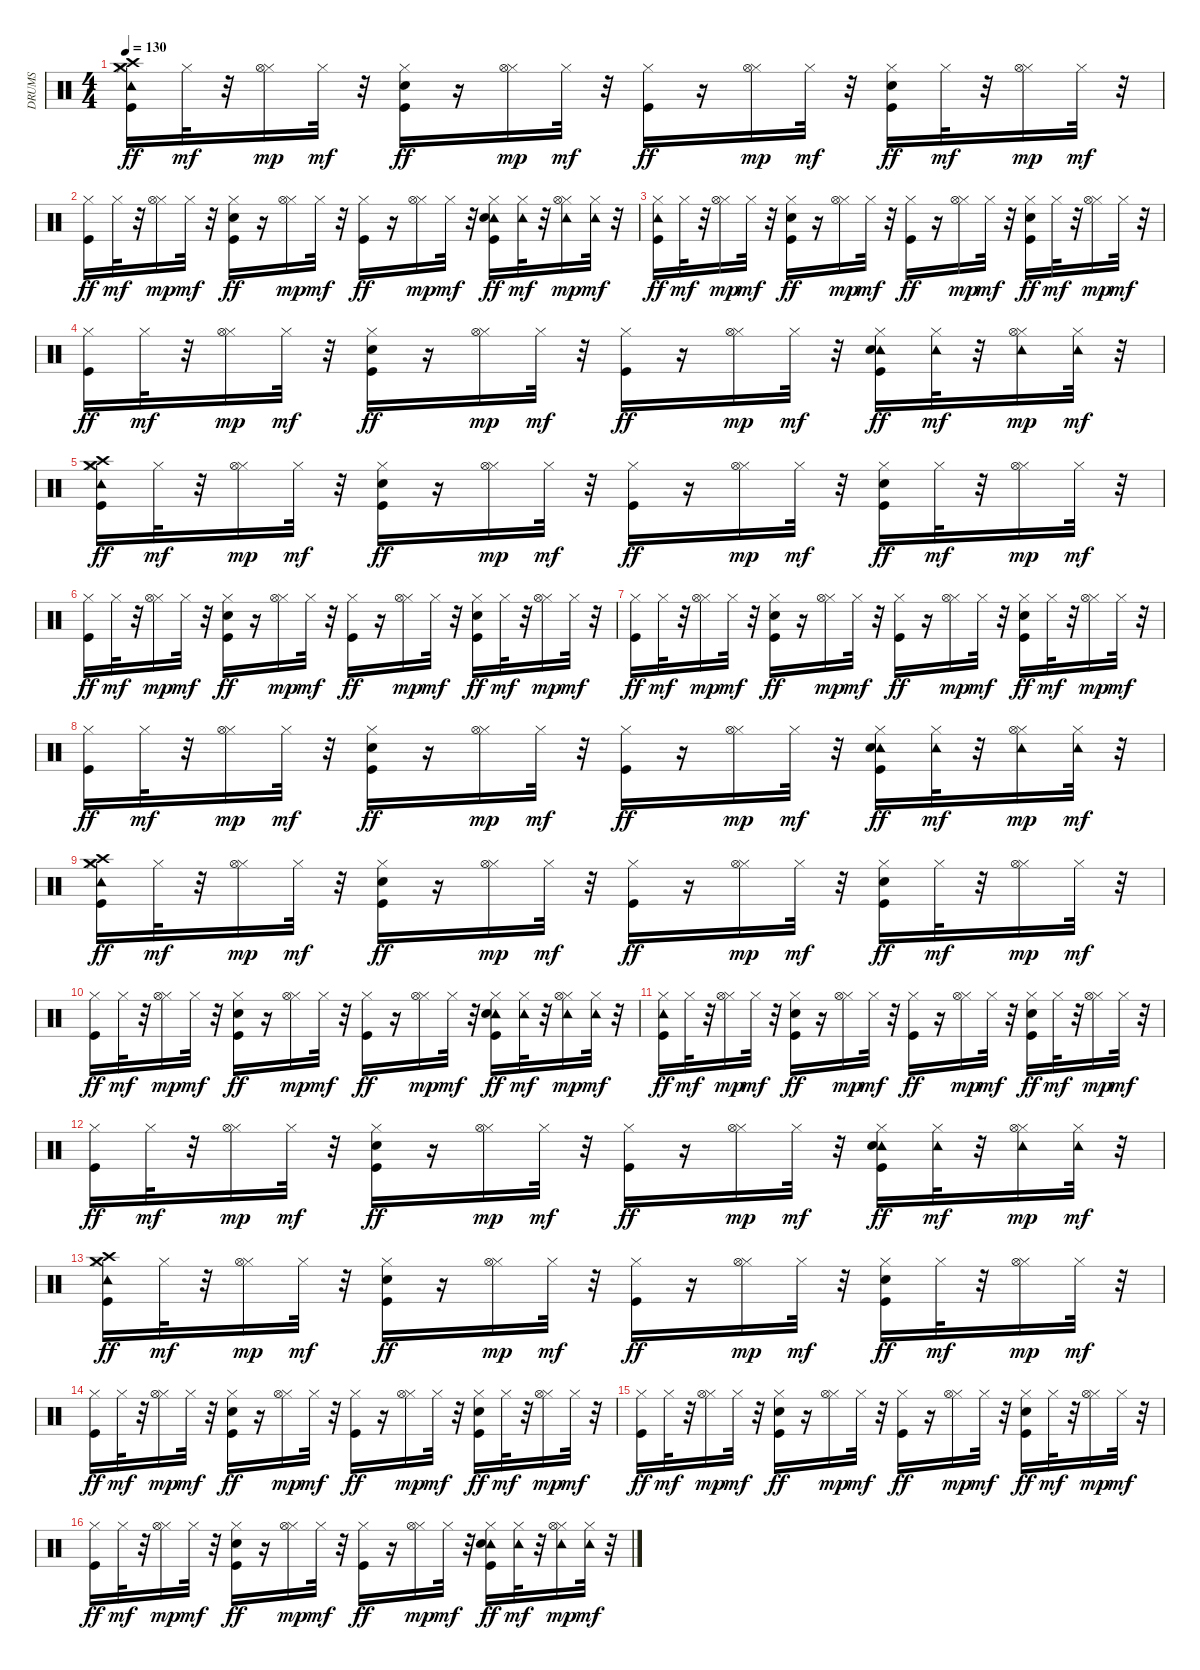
\track ("DRUMS" "DRUMS") {instrument percussion}
\staff {score}
\articulation defaults
\ts (4 4)
\tempo 130
\clef neutral
\ks c
("Hi-Hat (closed)" "Tambourine (hit)" "Crash high (hit)" "Crash medium (hit)" "Kick (hit)").16{dy ff} "Hi-Hat (closed)".32{dy mf} r.32 ("Hi-Hat (closed)" "Hi-Hat (open)").16{dy mp} "Hi-Hat (closed)".32{dy mf} r.32 ("Hi-Hat (closed)" "Electric Snare (hit)" "Kick (hit)").16{dy ff} r.16 ("Hi-Hat (closed)" "Hi-Hat (open)").16{dy mp} "Hi-Hat (closed)".32{dy mf} r.32 ("Hi-Hat (closed)" "Kick (hit)").16{dy ff} r.16 ("Hi-Hat (closed)" "Hi-Hat (open)").16{dy mp} "Hi-Hat (closed)".32{dy mf} r.32 ("Hi-Hat (closed)" "Electric Snare (hit)" "Kick (hit)").16{dy ff} "Hi-Hat (closed)".32{dy mf} r.32 ("Hi-Hat (closed)" "Hi-Hat (open)").16{dy mp} "Hi-Hat (closed)".32{dy mf} r.32 |
("Hi-Hat (closed)" "Kick (hit)").16{dy ff} "Hi-Hat (closed)".32{dy mf} r.32 ("Hi-Hat (closed)" "Hi-Hat (open)").16{dy mp} "Hi-Hat (closed)".32{dy mf} r.32 ("Hi-Hat (closed)" "Electric Snare (hit)" "Kick (hit)").16{dy ff} r.16 ("Hi-Hat (closed)" "Hi-Hat (open)").16{dy mp} "Hi-Hat (closed)".32{dy mf} r.32 ("Hi-Hat (closed)" "Kick (hit)").16{dy ff} r.16 ("Hi-Hat (closed)" "Hi-Hat (open)").16{dy mp} "Hi-Hat (closed)".32{dy mf} r.32 ("Hi-Hat (closed)" "Tambourine (hit)" "Electric Snare (hit)" "Kick (hit)").16{dy ff} ("Hi-Hat (closed)" "Tambourine (hit)").32{dy mf} r.32 ("Hi-Hat (closed)" "Tambourine (hit)" "Hi-Hat (open)").16{dy mp} ("Hi-Hat (closed)" "Tambourine (hit)").32{dy mf} r.32 |
("Hi-Hat (closed)" "Tambourine (hit)" "Kick (hit)").16{dy ff} "Hi-Hat (closed)".32{dy mf} r.32 ("Hi-Hat (closed)" "Hi-Hat (open)").16{dy mp} "Hi-Hat (closed)".32{dy mf} r.32 ("Hi-Hat (closed)" "Electric Snare (hit)" "Kick (hit)").16{dy ff} r.16 ("Hi-Hat (closed)" "Hi-Hat (open)").16{dy mp} "Hi-Hat (closed)".32{dy mf} r.32 ("Hi-Hat (closed)" "Kick (hit)").16{dy ff} r.16 ("Hi-Hat (closed)" "Hi-Hat (open)").16{dy mp} "Hi-Hat (closed)".32{dy mf} r.32 ("Hi-Hat (closed)" "Electric Snare (hit)" "Kick (hit)").16{dy ff} "Hi-Hat (closed)".32{dy mf} r.32 ("Hi-Hat (closed)" "Hi-Hat (open)").16{dy mp} "Hi-Hat (closed)".32{dy mf} r.32 |
("Hi-Hat (closed)" "Kick (hit)").16{dy ff} "Hi-Hat (closed)".32{dy mf} r.32 ("Hi-Hat (closed)" "Hi-Hat (open)").16{dy mp} "Hi-Hat (closed)".32{dy mf} r.32 ("Hi-Hat (closed)" "Electric Snare (hit)" "Kick (hit)").16{dy ff} r.16 ("Hi-Hat (closed)" "Hi-Hat (open)").16{dy mp} "Hi-Hat (closed)".32{dy mf} r.32 ("Hi-Hat (closed)" "Kick (hit)").16{dy ff} r.16 ("Hi-Hat (closed)" "Hi-Hat (open)").16{dy mp} "Hi-Hat (closed)".32{dy mf} r.32 ("Hi-Hat (closed)" "Tambourine (hit)" "Electric Snare (hit)" "Kick (hit)").16{dy ff} ("Hi-Hat (closed)" "Tambourine (hit)").32{dy mf} r.32 ("Hi-Hat (closed)" "Tambourine (hit)" "Hi-Hat (open)").16{dy mp} ("Hi-Hat (closed)" "Tambourine (hit)").32{dy mf} r.32 |
("Hi-Hat (closed)" "Tambourine (hit)" "Crash high (hit)" "Crash medium (hit)" "Kick (hit)").16{dy ff} "Hi-Hat (closed)".32{dy mf} r.32 ("Hi-Hat (closed)" "Hi-Hat (open)").16{dy mp} "Hi-Hat (closed)".32{dy mf} r.32 ("Hi-Hat (closed)" "Electric Snare (hit)" "Kick (hit)").16{dy ff} r.16 ("Hi-Hat (closed)" "Hi-Hat (open)").16{dy mp} "Hi-Hat (closed)".32{dy mf} r.32 ("Hi-Hat (closed)" "Kick (hit)").16{dy ff} r.16 ("Hi-Hat (closed)" "Hi-Hat (open)").16{dy mp} "Hi-Hat (closed)".32{dy mf} r.32 ("Hi-Hat (closed)" "Electric Snare (hit)" "Kick (hit)").16{dy ff} "Hi-Hat (closed)".32{dy mf} r.32 ("Hi-Hat (closed)" "Hi-Hat (open)").16{dy mp} "Hi-Hat (closed)".32{dy mf} r.32 |
("Hi-Hat (closed)" "Kick (hit)").16{dy ff} "Hi-Hat (closed)".32{dy mf} r.32 ("Hi-Hat (closed)" "Hi-Hat (open)").16{dy mp} "Hi-Hat (closed)".32{dy mf} r.32 ("Hi-Hat (closed)" "Electric Snare (hit)" "Kick (hit)").16{dy ff} r.16 ("Hi-Hat (closed)" "Hi-Hat (open)").16{dy mp} "Hi-Hat (closed)".32{dy mf} r.32 ("Hi-Hat (closed)" "Kick (hit)").16{dy ff} r.16 ("Hi-Hat (closed)" "Hi-Hat (open)").16{dy mp} "Hi-Hat (closed)".32{dy mf} r.32 ("Hi-Hat (closed)" "Electric Snare (hit)" "Kick (hit)").16{dy ff} "Hi-Hat (closed)".32{dy mf} r.32 ("Hi-Hat (closed)" "Hi-Hat (open)").16{dy mp} "Hi-Hat (closed)".32{dy mf} r.32 |
("Hi-Hat (closed)" "Kick (hit)").16{dy ff} "Hi-Hat (closed)".32{dy mf} r.32 ("Hi-Hat (closed)" "Hi-Hat (open)").16{dy mp} "Hi-Hat (closed)".32{dy mf} r.32 ("Hi-Hat (closed)" "Electric Snare (hit)" "Kick (hit)").16{dy ff} r.16 ("Hi-Hat (closed)" "Hi-Hat (open)").16{dy mp} "Hi-Hat (closed)".32{dy mf} r.32 ("Hi-Hat (closed)" "Kick (hit)").16{dy ff} r.16 ("Hi-Hat (closed)" "Hi-Hat (open)").16{dy mp} "Hi-Hat (closed)".32{dy mf} r.32 ("Hi-Hat (closed)" "Electric Snare (hit)" "Kick (hit)").16{dy ff} "Hi-Hat (closed)".32{dy mf} r.32 ("Hi-Hat (closed)" "Hi-Hat (open)").16{dy mp} "Hi-Hat (closed)".32{dy mf} r.32 |
("Hi-Hat (closed)" "Kick (hit)").16{dy ff} "Hi-Hat (closed)".32{dy mf} r.32 ("Hi-Hat (closed)" "Hi-Hat (open)").16{dy mp} "Hi-Hat (closed)".32{dy mf} r.32 ("Hi-Hat (closed)" "Electric Snare (hit)" "Kick (hit)").16{dy ff} r.16 ("Hi-Hat (closed)" "Hi-Hat (open)").16{dy mp} "Hi-Hat (closed)".32{dy mf} r.32 ("Hi-Hat (closed)" "Kick (hit)").16{dy ff} r.16 ("Hi-Hat (closed)" "Hi-Hat (open)").16{dy mp} "Hi-Hat (closed)".32{dy mf} r.32 ("Hi-Hat (closed)" "Tambourine (hit)" "Electric Snare (hit)" "Kick (hit)").16{dy ff} ("Hi-Hat (closed)" "Tambourine (hit)").32{dy mf} r.32 ("Hi-Hat (closed)" "Tambourine (hit)" "Hi-Hat (open)").16{dy mp} ("Hi-Hat (closed)" "Tambourine (hit)").32{dy mf} r.32 |
("Hi-Hat (closed)" "Tambourine (hit)" "Crash high (hit)" "Crash medium (hit)" "Kick (hit)").16{dy ff} "Hi-Hat (closed)".32{dy mf} r.32 ("Hi-Hat (closed)" "Hi-Hat (open)").16{dy mp} "Hi-Hat (closed)".32{dy mf} r.32 ("Hi-Hat (closed)" "Electric Snare (hit)" "Kick (hit)").16{dy ff} r.16 ("Hi-Hat (closed)" "Hi-Hat (open)").16{dy mp} "Hi-Hat (closed)".32{dy mf} r.32 ("Hi-Hat (closed)" "Kick (hit)").16{dy ff} r.16 ("Hi-Hat (closed)" "Hi-Hat (open)").16{dy mp} "Hi-Hat (closed)".32{dy mf} r.32 ("Hi-Hat (closed)" "Electric Snare (hit)" "Kick (hit)").16{dy ff} "Hi-Hat (closed)".32{dy mf} r.32 ("Hi-Hat (closed)" "Hi-Hat (open)").16{dy mp} "Hi-Hat (closed)".32{dy mf} r.32 |
("Hi-Hat (closed)" "Kick (hit)").16{dy ff} "Hi-Hat (closed)".32{dy mf} r.32 ("Hi-Hat (closed)" "Hi-Hat (open)").16{dy mp} "Hi-Hat (closed)".32{dy mf} r.32 ("Hi-Hat (closed)" "Electric Snare (hit)" "Kick (hit)").16{dy ff} r.16 ("Hi-Hat (closed)" "Hi-Hat (open)").16{dy mp} "Hi-Hat (closed)".32{dy mf} r.32 ("Hi-Hat (closed)" "Kick (hit)").16{dy ff} r.16 ("Hi-Hat (closed)" "Hi-Hat (open)").16{dy mp} "Hi-Hat (closed)".32{dy mf} r.32 ("Hi-Hat (closed)" "Tambourine (hit)" "Electric Snare (hit)" "Kick (hit)").16{dy ff} ("Hi-Hat (closed)" "Tambourine (hit)").32{dy mf} r.32 ("Hi-Hat (closed)" "Tambourine (hit)" "Hi-Hat (open)").16{dy mp} ("Hi-Hat (closed)" "Tambourine (hit)").32{dy mf} r.32 |
("Hi-Hat (closed)" "Tambourine (hit)" "Kick (hit)").16{dy ff} "Hi-Hat (closed)".32{dy mf} r.32 ("Hi-Hat (closed)" "Hi-Hat (open)").16{dy mp} "Hi-Hat (closed)".32{dy mf} r.32 ("Hi-Hat (closed)" "Electric Snare (hit)" "Kick (hit)").16{dy ff} r.16 ("Hi-Hat (closed)" "Hi-Hat (open)").16{dy mp} "Hi-Hat (closed)".32{dy mf} r.32 ("Hi-Hat (closed)" "Kick (hit)").16{dy ff} r.16 ("Hi-Hat (closed)" "Hi-Hat (open)").16{dy mp} "Hi-Hat (closed)".32{dy mf} r.32 ("Hi-Hat (closed)" "Electric Snare (hit)" "Kick (hit)").16{dy ff} "Hi-Hat (closed)".32{dy mf} r.32 ("Hi-Hat (closed)" "Hi-Hat (open)").16{dy mp} "Hi-Hat (closed)".32{dy mf} r.32 |
("Hi-Hat (closed)" "Kick (hit)").16{dy ff} "Hi-Hat (closed)".32{dy mf} r.32 ("Hi-Hat (closed)" "Hi-Hat (open)").16{dy mp} "Hi-Hat (closed)".32{dy mf} r.32 ("Hi-Hat (closed)" "Electric Snare (hit)" "Kick (hit)").16{dy ff} r.16 ("Hi-Hat (closed)" "Hi-Hat (open)").16{dy mp} "Hi-Hat (closed)".32{dy mf} r.32 ("Hi-Hat (closed)" "Kick (hit)").16{dy ff} r.16 ("Hi-Hat (closed)" "Hi-Hat (open)").16{dy mp} "Hi-Hat (closed)".32{dy mf} r.32 ("Hi-Hat (closed)" "Tambourine (hit)" "Electric Snare (hit)" "Kick (hit)").16{dy ff} ("Hi-Hat (closed)" "Tambourine (hit)").32{dy mf} r.32 ("Hi-Hat (closed)" "Tambourine (hit)" "Hi-Hat (open)").16{dy mp} ("Hi-Hat (closed)" "Tambourine (hit)").32{dy mf} r.32 |
("Hi-Hat (closed)" "Tambourine (hit)" "Crash high (hit)" "Crash medium (hit)" "Kick (hit)").16{dy ff} "Hi-Hat (closed)".32{dy mf} r.32 ("Hi-Hat (closed)" "Hi-Hat (open)").16{dy mp} "Hi-Hat (closed)".32{dy mf} r.32 ("Hi-Hat (closed)" "Electric Snare (hit)" "Kick (hit)").16{dy ff} r.16 ("Hi-Hat (closed)" "Hi-Hat (open)").16{dy mp} "Hi-Hat (closed)".32{dy mf} r.32 ("Hi-Hat (closed)" "Kick (hit)").16{dy ff} r.16 ("Hi-Hat (closed)" "Hi-Hat (open)").16{dy mp} "Hi-Hat (closed)".32{dy mf} r.32 ("Hi-Hat (closed)" "Electric Snare (hit)" "Kick (hit)").16{dy ff} "Hi-Hat (closed)".32{dy mf} r.32 ("Hi-Hat (closed)" "Hi-Hat (open)").16{dy mp} "Hi-Hat (closed)".32{dy mf} r.32 |
("Hi-Hat (closed)" "Kick (hit)").16{dy ff} "Hi-Hat (closed)".32{dy mf} r.32 ("Hi-Hat (closed)" "Hi-Hat (open)").16{dy mp} "Hi-Hat (closed)".32{dy mf} r.32 ("Hi-Hat (closed)" "Electric Snare (hit)" "Kick (hit)").16{dy ff} r.16 ("Hi-Hat (closed)" "Hi-Hat (open)").16{dy mp} "Hi-Hat (closed)".32{dy mf} r.32 ("Hi-Hat (closed)" "Kick (hit)").16{dy ff} r.16 ("Hi-Hat (closed)" "Hi-Hat (open)").16{dy mp} "Hi-Hat (closed)".32{dy mf} r.32 ("Hi-Hat (closed)" "Electric Snare (hit)" "Kick (hit)").16{dy ff} "Hi-Hat (closed)".32{dy mf} r.32 ("Hi-Hat (closed)" "Hi-Hat (open)").16{dy mp} "Hi-Hat (closed)".32{dy mf} r.32 |
("Hi-Hat (closed)" "Kick (hit)").16{dy ff} "Hi-Hat (closed)".32{dy mf} r.32 ("Hi-Hat (closed)" "Hi-Hat (open)").16{dy mp} "Hi-Hat (closed)".32{dy mf} r.32 ("Hi-Hat (closed)" "Electric Snare (hit)" "Kick (hit)").16{dy ff} r.16 ("Hi-Hat (closed)" "Hi-Hat (open)").16{dy mp} "Hi-Hat (closed)".32{dy mf} r.32 ("Hi-Hat (closed)" "Kick (hit)").16{dy ff} r.16 ("Hi-Hat (closed)" "Hi-Hat (open)").16{dy mp} "Hi-Hat (closed)".32{dy mf} r.32 ("Hi-Hat (closed)" "Electric Snare (hit)" "Kick (hit)").16{dy ff} "Hi-Hat (closed)".32{dy mf} r.32 ("Hi-Hat (closed)" "Hi-Hat (open)").16{dy mp} "Hi-Hat (closed)".32{dy mf} r.32 |
("Hi-Hat (closed)" "Kick (hit)").16{dy ff} "Hi-Hat (closed)".32{dy mf} r.32 ("Hi-Hat (closed)" "Hi-Hat (open)").16{dy mp} "Hi-Hat (closed)".32{dy mf} r.32 ("Hi-Hat (closed)" "Electric Snare (hit)" "Kick (hit)").16{dy ff} r.16 ("Hi-Hat (closed)" "Hi-Hat (open)").16{dy mp} "Hi-Hat (closed)".32{dy mf} r.32 ("Hi-Hat (closed)" "Kick (hit)").16{dy ff} r.16 ("Hi-Hat (closed)" "Hi-Hat (open)").16{dy mp} "Hi-Hat (closed)".32{dy mf} r.32 ("Hi-Hat (closed)" "Tambourine (hit)" "Electric Snare (hit)" "Kick (hit)").16{dy ff} ("Hi-Hat (closed)" "Tambourine (hit)").32{dy mf} r.32 ("Hi-Hat (closed)" "Tambourine (hit)" "Hi-Hat (open)").16{dy mp} ("Hi-Hat (closed)" "Tambourine (hit)").32{dy mf} r.32
